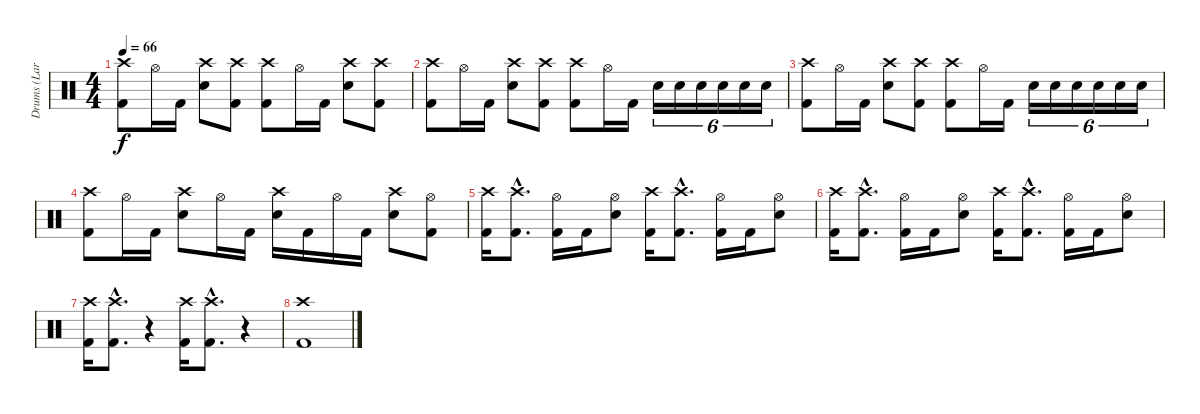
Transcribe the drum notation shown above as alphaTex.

\track ("Drums (Lars)" "Drums (Lar") {instrument percussion}
\staff {score}
\articulation defaults
\ts (4 4)
\tempo 66
\clef neutral
\ks c
("Crash high (hit)" "Kick (hit) 2").8{dy f} "Hi-Hat (open)".16 "Kick (hit) 2".16 ("Crash high (hit)" "Snare (hit) 2").8 ("Crash high (hit)" "Kick (hit) 2").8 ("Crash high (hit)" "Kick (hit) 2").8 "Hi-Hat (open)".16 "Kick (hit) 2".16 ("Crash high (hit)" "Snare (hit) 2").8 ("Crash high (hit)" "Kick (hit) 2").8 |
("Crash high (hit)" "Kick (hit) 2").8 "Hi-Hat (open)".16 "Kick (hit) 2".16 ("Crash high (hit)" "Snare (hit) 2").8 ("Crash high (hit)" "Kick (hit) 2").8 ("Crash high (hit)" "Kick (hit) 2").8 "Hi-Hat (open)".16 "Kick (hit) 2".16 "Snare (hit) 2".16{tu (6 4)} "Snare (hit) 2".16{tu (6 4)} "Snare (hit) 2".16{tu (6 4)} "Snare (hit) 2".16{tu (6 4)} "Snare (hit) 2".16{tu (6 4)} "Snare (hit) 2".16{tu (6 4)} |
("Crash high (hit)" "Kick (hit) 2").8 "Hi-Hat (open)".16 "Kick (hit) 2".16 ("Crash high (hit)" "Snare (hit) 2").8 ("Crash high (hit)" "Kick (hit) 2").8 ("Crash high (hit)" "Kick (hit) 2").8 "Hi-Hat (open)".16 "Kick (hit) 2".16 "Snare (hit) 2".16{tu (6 4)} "Snare (hit) 2".16{tu (6 4)} "Snare (hit) 2".16{tu (6 4)} "Snare (hit) 2".16{tu (6 4)} "Snare (hit) 2".16{tu (6 4)} "Snare (hit) 2".16{tu (6 4)} |
("Crash high (hit)" "Kick (hit) 2").8 "Hi-Hat (open)".16 "Kick (hit) 2".16 ("Crash high (hit)" "Snare (hit) 2").8 "Hi-Hat (open)".16 "Kick (hit) 2".16 ("Crash high (hit)" "Snare (hit) 2").16 "Kick (hit) 2".16 "Hi-Hat (open)".16 "Kick (hit) 2".16 ("Crash high (hit)" "Snare (hit) 2").8 ("Hi-Hat (open)" "Kick (hit) 2").8 |
("Crash high (hit)" "Kick (hit) 2").16 ("Crash high (hit)"{hac} "Kick (hit) 2"{hac}).8{d} ("Hi-Hat (open)" "Kick (hit) 2").16 "Kick (hit) 2".16 ("Hi-Hat (open)" "Snare (hit) 2").8 ("Crash high (hit)" "Kick (hit) 2").16 ("Crash high (hit)"{hac} "Kick (hit) 2"{hac}).8{d} ("Hi-Hat (open)" "Kick (hit) 2").16 "Kick (hit) 2".16 ("Hi-Hat (open)" "Snare (hit) 2").8 |
("Crash high (hit)" "Kick (hit) 2").16 ("Crash high (hit)"{hac} "Kick (hit) 2"{hac}).8{d} ("Hi-Hat (open)" "Kick (hit) 2").16 "Kick (hit) 2".16 ("Hi-Hat (open)" "Snare (hit) 2").8 ("Crash high (hit)" "Kick (hit) 2").16 ("Crash high (hit)"{hac} "Kick (hit) 2"{hac}).8{d} ("Hi-Hat (open)" "Kick (hit) 2").16 "Kick (hit) 2".16 ("Hi-Hat (open)" "Snare (hit) 2").8 |
("Crash high (hit)" "Kick (hit) 2").16 ("Crash high (hit)"{hac} "Kick (hit) 2"{hac}).8{d} r.4 ("Crash high (hit)" "Kick (hit) 2").16 ("Crash high (hit)"{hac} "Kick (hit) 2"{hac}).8{d} r.4 |
("Crash high (hit)" "Kick (hit) 2").1
